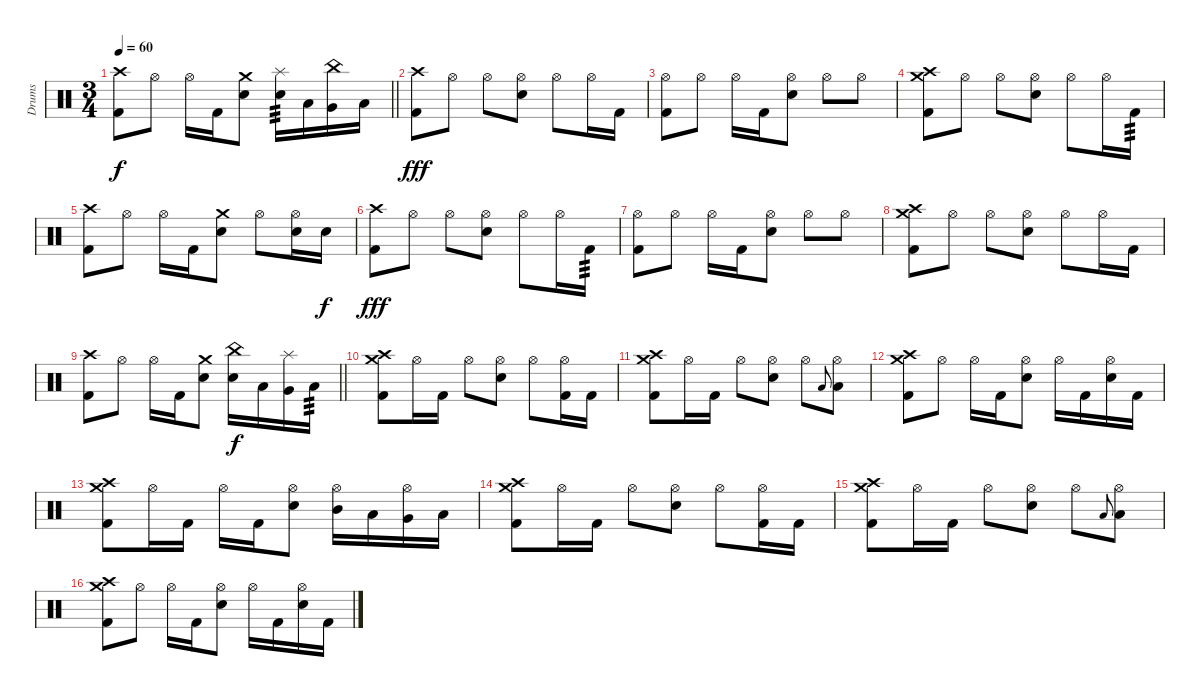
\track ("Drums" "Drums") {instrument percussion}
\staff {score}
\articulation defaults
\ts (3 4)
\tempo 60
\clef neutral
\barLineRight lightlight
\ks c
("Kick (hit) 2" "Crash high (hit)").8{dy f} "Hi-Hat (open)".8 "Hi-Hat (open)".16 "Kick (hit) 2".16 ("Electric Snare (hit)" "Crash medium (hit)").8 ("Electric Snare (hit)" "Splash (hit)").16{tp 3} "Low Tom (hit)".16 ("Very Low Tom (hit)" "China (hit)").16 "Low Floor Tom (hit)".16 |
("Kick (hit) 2" "Crash high (hit)").8{dy fff} "Hi-Hat (open)".8 "Hi-Hat (open)".8 ("Electric Snare (hit)" "Hi-Hat (open)").8 "Hi-Hat (open)".8 "Hi-Hat (open)".16 "Kick (hit) 2".16 |
("Kick (hit) 2" "Hi-Hat (open)").8 "Hi-Hat (open)".8 "Hi-Hat (open)".16 "Kick (hit) 2".16 ("Electric Snare (hit)" "Hi-Hat (open)").8 "Hi-Hat (open)".8 "Hi-Hat (open)".8 |
("Kick (hit) 2" "Crash high (hit)" "Crash medium (hit)").8 "Hi-Hat (open)".8 "Hi-Hat (open)".8 ("Electric Snare (hit)" "Hi-Hat (open)").8 "Hi-Hat (open)".8 "Hi-Hat (open)".16 "Kick (hit) 2".16{tp 3} |
("Kick (hit) 2" "Crash high (hit)").8 "Hi-Hat (open)".8 "Hi-Hat (open)".16 "Kick (hit) 2".16 ("Electric Snare (hit)" "Crash medium (hit)").8 "Hi-Hat (open)".8 ("Electric Snare (hit)" "Hi-Hat (open)").16 "Electric Snare (hit)".16{dy f} |
("Kick (hit) 2" "Crash high (hit)").8{dy fff} "Hi-Hat (open)".8 "Hi-Hat (open)".8 ("Electric Snare (hit)" "Hi-Hat (open)").8 "Hi-Hat (open)".8 "Hi-Hat (open)".16 "Kick (hit) 2".16{tp 3} |
("Kick (hit) 2" "Hi-Hat (open)").8 "Hi-Hat (open)".8 "Hi-Hat (open)".16 "Kick (hit) 2".16 ("Electric Snare (hit)" "Hi-Hat (open)").8 "Hi-Hat (open)".8 "Hi-Hat (open)".8 |
("Kick (hit) 2" "Crash high (hit)" "Crash medium (hit)").8 "Hi-Hat (open)".8 "Hi-Hat (open)".8 ("Electric Snare (hit)" "Hi-Hat (open)").8 "Hi-Hat (open)".8 "Hi-Hat (open)".16 "Kick (hit) 2".16 |
\barLineRight lightlight
("Kick (hit) 2" "Crash high (hit)").8 "Hi-Hat (open)".8 "Hi-Hat (open)".16 "Kick (hit) 2".16 ("Electric Snare (hit)" "Crash medium (hit)").8 ("Electric Snare (hit)" "China (hit)").16{dy f} "Low Tom (hit)".16 ("Very Low Tom (hit)" "Splash (hit)").16 "Low Floor Tom (hit)".16{tp 3} |
("Kick (hit) 2" "Crash high (hit)" "Crash medium (hit)").8 "Hi-Hat (open)".16 "Kick (hit) 2".16 "Hi-Hat (open)".8 ("Electric Snare (hit)" "Hi-Hat (open)").8 "Hi-Hat (open)".8 ("Kick (hit) 2" "Hi-Hat (open)").16 "Kick (hit) 2".16 |
("Kick (hit) 2" "Crash high (hit)" "Crash medium (hit)").8 "Hi-Hat (open)".16 "Kick (hit) 2".16 "Hi-Hat (open)".8 ("Electric Snare (hit)" "Hi-Hat (open)").8 "Hi-Hat (open)".8 "Low Tom (hit)".8{gr onbeat} ("Low Tom (hit)" "Hi-Hat (open)").8 |
("Kick (hit) 2" "Crash high (hit)" "Crash medium (hit)").8 "Hi-Hat (open)".8 "Hi-Hat (open)".16 "Kick (hit) 2".16 ("Electric Snare (hit)" "Hi-Hat (open)").8 "Hi-Hat (open)".16 "Kick (hit) 2".16 ("Electric Snare (hit)" "Hi-Hat (open)").16 "Kick (hit) 2".16 |
("Kick (hit) 2" "Crash high (hit)" "Crash medium (hit)").8 "Hi-Hat (open)".16 "Kick (hit) 2".16 "Hi-Hat (open)".16 "Kick (hit) 2".16 ("Electric Snare (hit)" "Hi-Hat (open)").8 ("Mid Tom (hit)" "Hi-Hat (open)").16 "Low Tom (hit)".16 ("Very Low Tom (hit)" "Hi-Hat (open)").16 "Low Floor Tom (hit)".16 |
("Kick (hit) 2" "Crash high (hit)" "Crash medium (hit)").8 "Hi-Hat (open)".16 "Kick (hit) 2".16 "Hi-Hat (open)".8 ("Electric Snare (hit)" "Hi-Hat (open)").8 "Hi-Hat (open)".8 ("Kick (hit) 2" "Hi-Hat (open)").16 "Kick (hit) 2".16 |
("Kick (hit) 2" "Crash high (hit)" "Crash medium (hit)").8 "Hi-Hat (open)".16 "Kick (hit) 2".16 "Hi-Hat (open)".8 ("Electric Snare (hit)" "Hi-Hat (open)").8 "Hi-Hat (open)".8 "Low Tom (hit)".8{gr onbeat} ("Low Tom (hit)" "Hi-Hat (open)").8 |
("Kick (hit) 2" "Crash high (hit)" "Crash medium (hit)").8 "Hi-Hat (open)".8 "Hi-Hat (open)".16 "Kick (hit) 2".16 ("Electric Snare (hit)" "Hi-Hat (open)").8 "Hi-Hat (open)".16 "Kick (hit) 2".16 ("Electric Snare (hit)" "Hi-Hat (open)").16 "Kick (hit) 2".16
